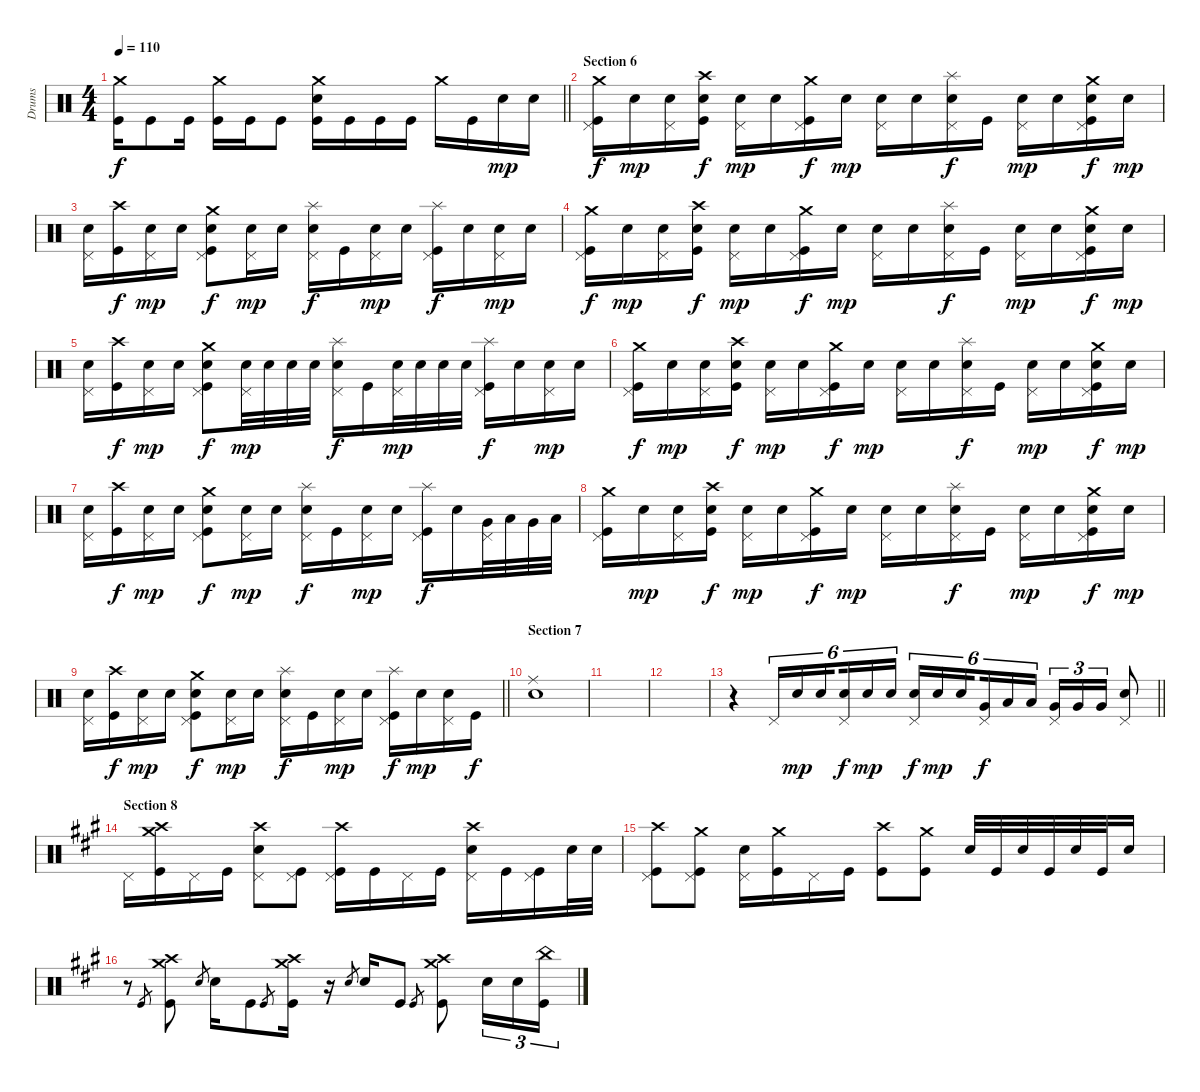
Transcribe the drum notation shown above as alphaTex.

\track ("Drums" "Drums") {instrument percussion}
\staff {score}
\articulation defaults
\ts (4 4)
\tempo 110
\clef neutral
\barLineRight lightlight
\ks c
("Crash medium (hit)" "Kick (hit)").16{dy f} "Kick (hit)".8 "Kick (hit)".16 ("Crash medium (hit)" "Kick (hit)").16 "Kick (hit)".16 "Kick (hit)".8 ("Crash medium (hit)" "Electric Snare (hit)" "Kick (hit)").16 "Kick (hit)".16 "Kick (hit)".16 "Kick (hit)".16 "Crash medium (hit)".16 "Kick (hit)".16 "Electric Snare (hit)".16{dy mp} "Electric Snare (hit)".16 |
\section ("" "Section 6")
("Crash medium (hit)" "Kick (hit)" "Pedal Hi-Hat (hit)").16{dy f} "Electric Snare (hit)".16{dy mp} ("Electric Snare (hit)" "Pedal Hi-Hat (hit)").16 ("Crash high (hit)" "Electric Snare (hit)" "Kick (hit)").16{dy f} ("Electric Snare (hit)" "Pedal Hi-Hat (hit)").16{dy mp} "Electric Snare (hit)".16 ("Crash medium (hit)" "Kick (hit)" "Pedal Hi-Hat (hit)").16{dy f} "Electric Snare (hit)".16{dy mp} ("Electric Snare (hit)" "Pedal Hi-Hat (hit)").16 "Electric Snare (hit)".16 ("Splash (hit)" "Electric Snare (hit)" "Pedal Hi-Hat (hit)").16{dy f} "Kick (hit)".16 ("Electric Snare (hit)" "Pedal Hi-Hat (hit)").16{dy mp} "Electric Snare (hit)".16 ("Crash medium (hit)" "Electric Snare (hit)" "Kick (hit)" "Pedal Hi-Hat (hit)").16{dy f} "Electric Snare (hit)".16{dy mp} |
("Electric Snare (hit)" "Pedal Hi-Hat (hit)").16 ("Crash high (hit)" "Kick (hit)").16{dy f} ("Electric Snare (hit)" "Pedal Hi-Hat (hit)").16{dy mp} "Electric Snare (hit)".16 ("Crash medium (hit)" "Electric Snare (hit)" "Kick (hit)" "Pedal Hi-Hat (hit)").8{dy f} ("Electric Snare (hit)" "Pedal Hi-Hat (hit)").16{dy mp} "Electric Snare (hit)".16 ("Splash (hit)" "Electric Snare (hit)" "Pedal Hi-Hat (hit)").16{dy f} "Kick (hit)".16 ("Electric Snare (hit)" "Pedal Hi-Hat (hit)").16{dy mp} "Electric Snare (hit)".16 ("Splash (hit)" "Kick (hit)" "Pedal Hi-Hat (hit)").16{dy f} "Electric Snare (hit)".16 ("Electric Snare (hit)" "Pedal Hi-Hat (hit)").16{dy mp} "Electric Snare (hit)".16 |
("Crash medium (hit)" "Kick (hit)" "Pedal Hi-Hat (hit)").16{dy f} "Electric Snare (hit)".16{dy mp} ("Electric Snare (hit)" "Pedal Hi-Hat (hit)").16 ("Crash high (hit)" "Electric Snare (hit)" "Kick (hit)").16{dy f} ("Electric Snare (hit)" "Pedal Hi-Hat (hit)").16{dy mp} "Electric Snare (hit)".16 ("Crash medium (hit)" "Kick (hit)" "Pedal Hi-Hat (hit)").16{dy f} "Electric Snare (hit)".16{dy mp} ("Electric Snare (hit)" "Pedal Hi-Hat (hit)").16 "Electric Snare (hit)".16 ("Splash (hit)" "Electric Snare (hit)" "Pedal Hi-Hat (hit)").16{dy f} "Kick (hit)".16 ("Electric Snare (hit)" "Pedal Hi-Hat (hit)").16{dy mp} "Electric Snare (hit)".16 ("Crash medium (hit)" "Electric Snare (hit)" "Kick (hit)" "Pedal Hi-Hat (hit)").16{dy f} "Electric Snare (hit)".16{dy mp} |
("Electric Snare (hit)" "Pedal Hi-Hat (hit)").16 ("Crash high (hit)" "Kick (hit)").16{dy f} ("Electric Snare (hit)" "Pedal Hi-Hat (hit)").16{dy mp} "Electric Snare (hit)".16 ("Crash medium (hit)" "Electric Snare (hit)" "Kick (hit)" "Pedal Hi-Hat (hit)").8{dy f} ("Electric Snare (hit)" "Pedal Hi-Hat (hit)").32{dy mp} "Electric Snare (hit)".32 "Electric Snare (hit)".32 "Electric Snare (hit)".32 ("Splash (hit)" "Electric Snare (hit)" "Pedal Hi-Hat (hit)").16{dy f} "Kick (hit)".16 ("Electric Snare (hit)" "Pedal Hi-Hat (hit)").32{dy mp} "Electric Snare (hit)".32 "Electric Snare (hit)".32 "Electric Snare (hit)".32 ("Splash (hit)" "Kick (hit)" "Pedal Hi-Hat (hit)").16{dy f} "Electric Snare (hit)".16 ("Electric Snare (hit)" "Pedal Hi-Hat (hit)").16{dy mp} "Electric Snare (hit)".16 |
("Crash medium (hit)" "Kick (hit)" "Pedal Hi-Hat (hit)").16{dy f} "Electric Snare (hit)".16{dy mp} ("Electric Snare (hit)" "Pedal Hi-Hat (hit)").16 ("Crash high (hit)" "Electric Snare (hit)" "Kick (hit)").16{dy f} ("Electric Snare (hit)" "Pedal Hi-Hat (hit)").16{dy mp} "Electric Snare (hit)".16 ("Crash medium (hit)" "Kick (hit)" "Pedal Hi-Hat (hit)").16{dy f} "Electric Snare (hit)".16{dy mp} ("Electric Snare (hit)" "Pedal Hi-Hat (hit)").16 "Electric Snare (hit)".16 ("Splash (hit)" "Electric Snare (hit)" "Pedal Hi-Hat (hit)").16{dy f} "Kick (hit)".16 ("Electric Snare (hit)" "Pedal Hi-Hat (hit)").16{dy mp} "Electric Snare (hit)".16 ("Crash medium (hit)" "Electric Snare (hit)" "Kick (hit)" "Pedal Hi-Hat (hit)").16{dy f} "Electric Snare (hit)".16{dy mp} |
("Electric Snare (hit)" "Pedal Hi-Hat (hit)").16 ("Crash high (hit)" "Kick (hit)").16{dy f} ("Electric Snare (hit)" "Pedal Hi-Hat (hit)").16{dy mp} "Electric Snare (hit)".16 ("Crash medium (hit)" "Electric Snare (hit)" "Kick (hit)" "Pedal Hi-Hat (hit)").8{dy f} ("Electric Snare (hit)" "Pedal Hi-Hat (hit)").16{dy mp} "Electric Snare (hit)".16 ("Splash (hit)" "Electric Snare (hit)" "Pedal Hi-Hat (hit)").16{dy f} "Kick (hit)".16 ("Electric Snare (hit)" "Pedal Hi-Hat (hit)").16{dy mp} "Electric Snare (hit)".16 ("Splash (hit)" "Kick (hit)" "Pedal Hi-Hat (hit)").16{dy f} "Electric Snare (hit)".16 ("Very Low Tom (hit)" "Pedal Hi-Hat (hit)").32 "Low Tom (hit)".32 "Very Low Tom (hit)".32 "Low Tom (hit)".32 |
("Crash medium (hit)" "Kick (hit)" "Pedal Hi-Hat (hit)").16 "Electric Snare (hit)".16{dy mp} ("Electric Snare (hit)" "Pedal Hi-Hat (hit)").16 ("Crash high (hit)" "Electric Snare (hit)" "Kick (hit)").16{dy f} ("Electric Snare (hit)" "Pedal Hi-Hat (hit)").16{dy mp} "Electric Snare (hit)".16 ("Crash medium (hit)" "Kick (hit)" "Pedal Hi-Hat (hit)").16{dy f} "Electric Snare (hit)".16{dy mp} ("Electric Snare (hit)" "Pedal Hi-Hat (hit)").16 "Electric Snare (hit)".16 ("Splash (hit)" "Electric Snare (hit)" "Pedal Hi-Hat (hit)").16{dy f} "Kick (hit)".16 ("Electric Snare (hit)" "Pedal Hi-Hat (hit)").16{dy mp} "Electric Snare (hit)".16 ("Crash medium (hit)" "Electric Snare (hit)" "Kick (hit)" "Pedal Hi-Hat (hit)").16{dy f} "Electric Snare (hit)".16{dy mp} |
\barLineRight lightlight
("Electric Snare (hit)" "Pedal Hi-Hat (hit)").16 ("Crash high (hit)" "Kick (hit)").16{dy f} ("Electric Snare (hit)" "Pedal Hi-Hat (hit)").16{dy mp} "Electric Snare (hit)".16 ("Crash medium (hit)" "Electric Snare (hit)" "Kick (hit)" "Pedal Hi-Hat (hit)").8{dy f} ("Electric Snare (hit)" "Pedal Hi-Hat (hit)").16{dy mp} "Electric Snare (hit)".16 ("Splash (hit)" "Electric Snare (hit)" "Pedal Hi-Hat (hit)").16{dy f} "Kick (hit)".16 ("Electric Snare (hit)" "Pedal Hi-Hat (hit)").16{dy mp} "Electric Snare (hit)".16 ("Splash (hit)" "Kick (hit)" "Pedal Hi-Hat (hit)").16{dy f} "Electric Snare (hit)".16{dy mp} ("Electric Snare (hit)" "Pedal Hi-Hat (hit)").16 "Kick (hit)".16{dy f} |
\section ("" "Section 7")
("Ride (middle)" "Electric Snare (hit)").1 |
|
|
\barLineRight lightlight
r.4 "Pedal Hi-Hat (hit)".16{tu (6 4)} "Electric Snare (hit)".16{tu (6 4) dy mp} "Electric Snare (hit)".16{tu (6 4) beam splitsecondary} ("Electric Snare (hit)" "Pedal Hi-Hat (hit)").16{tu (6 4) dy f} "Electric Snare (hit)".16{tu (6 4) dy mp} "Electric Snare (hit)".16{tu (6 4)} ("Electric Snare (hit)" "Pedal Hi-Hat (hit)").16{tu (6 4) dy f} "Electric Snare (hit)".16{tu (6 4) dy mp} "Electric Snare (hit)".16{tu (6 4) beam splitsecondary} ("Very Low Tom (hit)" "Pedal Hi-Hat (hit)").16{tu (6 4) dy f} "Low Tom (hit)".16{tu (6 4)} "Low Tom (hit)".16{tu (6 4)} ("Very Low Tom (hit)" "Pedal Hi-Hat (hit)").16{tu (3 2)} "Very Low Tom (hit)".16{tu (3 2)} "Very Low Tom (hit)".16{tu (3 2)} ("Electric Snare (hit)" "Pedal Hi-Hat (hit)").8 |
\section ("" "Section 8")
\ks f#minor "Pedal Hi-Hat (hit)".16
("Crash high (hit)" "Crash medium (hit)" "Kick (hit)").16 "Pedal Hi-Hat (hit)".16 "Kick (hit)".16 ("Crash high (hit)" "Electric Snare (hit)" "Pedal Hi-Hat (hit)").8 ("Kick (hit)" "Pedal Hi-Hat (hit)").8 ("Crash high (hit)" "Kick (hit)" "Pedal Hi-Hat (hit)").16 "Kick (hit)".16 "Pedal Hi-Hat (hit)".16 "Kick (hit)".16 ("Crash high (hit)" "Electric Snare (hit)" "Pedal Hi-Hat (hit)").16 "Kick (hit)".16 ("Kick (hit)" "Pedal Hi-Hat (hit)").16 "Electric Snare (hit)".32 "Electric Snare (hit)".32 |
("Crash high (hit)" "Kick (hit)" "Pedal Hi-Hat (hit)").8 ("Crash medium (hit)" "Kick (hit)" "Pedal Hi-Hat (hit)").8 ("Electric Snare (hit)" "Pedal Hi-Hat (hit)").16 ("Crash medium (hit)" "Kick (hit)").16 "Pedal Hi-Hat (hit)".16 "Kick (hit)".16 ("Crash high (hit)" "Kick (hit)").8 ("Crash medium (hit)" "Kick (hit)").8 "Electric Snare (hit)".32 "Kick (hit)".32 "Electric Snare (hit)".32 "Kick (hit)".32 "Electric Snare (hit)".32 "Kick (hit)".32 "Electric Snare (hit)".16 |
r.8 "Kick (hit)".8{gr} ("Crash high (hit)" "Crash medium (hit)" "Kick (hit)").8 "Electric Snare (hit)".8{gr} "Electric Snare (hit)".16 "Kick (hit)".8 "Kick (hit)".8{gr} ("Crash high (hit)" "Crash medium (hit)" "Kick (hit)").16 r.16 "Electric Snare (hit)".8{gr} "Electric Snare (hit)".16 "Kick (hit)".8 "Kick (hit)".8{gr} ("Crash high (hit)" "Crash medium (hit)" "Kick (hit)").8 "Electric Snare (hit)".16{tu (3 2)} "Electric Snare (hit)".16{tu (3 2)} ("China (hit)" "Kick (hit)").16{tu (3 2)}
